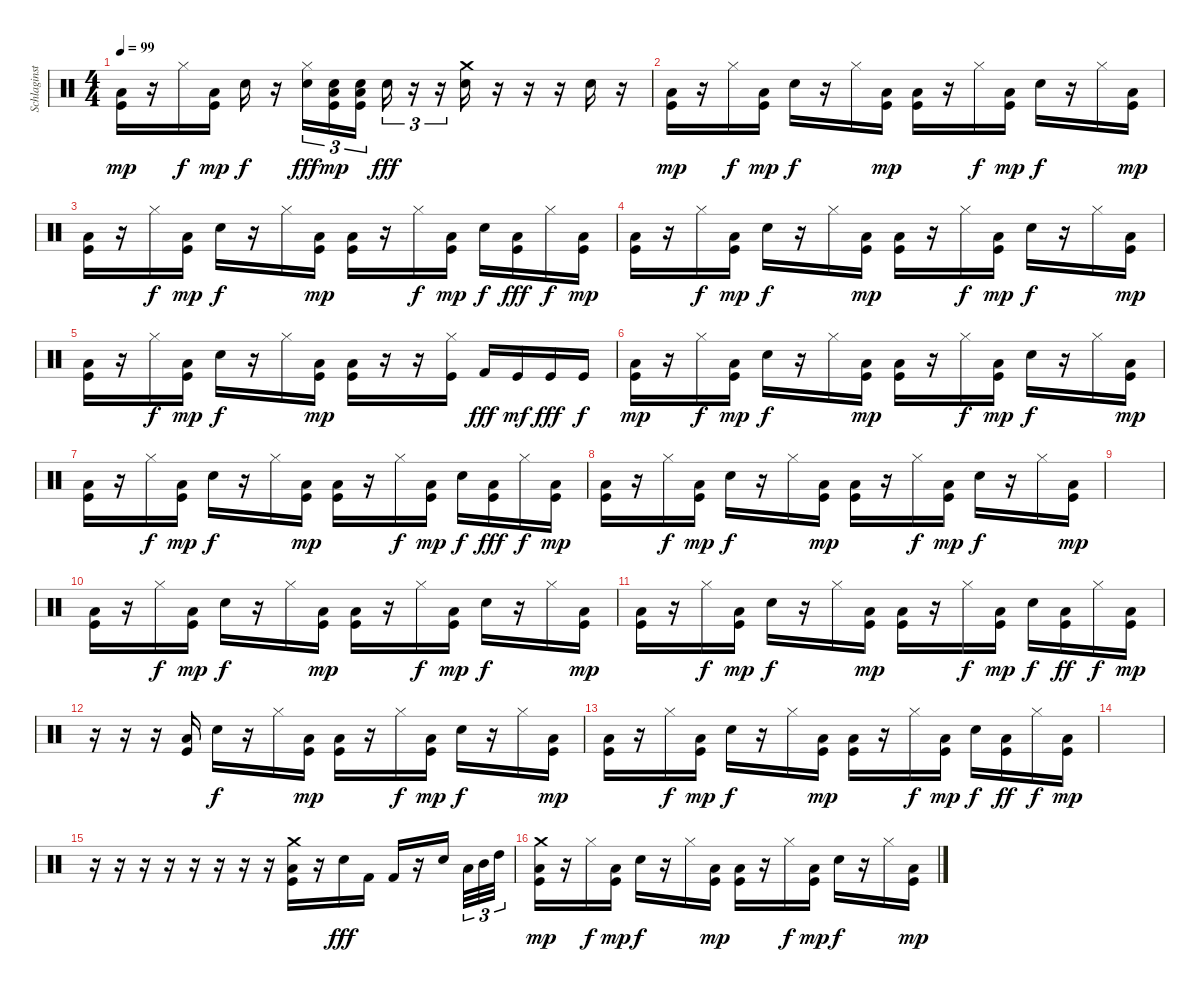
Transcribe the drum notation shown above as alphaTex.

\track ("Schlaginstrumente - Auswahl" "Schlaginst") {instrument percussion}
\staff {score}
\articulation defaults
\ts (4 4)
\tempo 99
\clef neutral
\ks c
("Low Floor Tom (hit)" "Kick (hit)").16{dy mp} r.16 "Hi-Hat (closed)".16{dy f} ("Low Floor Tom (hit)" "Kick (hit)").16{dy mp} "Snare (hit) 2".16{dy f} r.16 ("Hi-Hat (closed)" "Snare (hit) 2").16{tu (3 2) dy fff} ("Snare (hit) 2" "Low Floor Tom (hit)" "Kick (hit)").16{tu (3 2) dy mp} ("Snare (hit) 2" "Low Floor Tom (hit)" "Kick (hit)").16{tu (3 2)} "Snare (hit) 2".16{tu (3 2) dy fff} r.16{tu (3 2)} r.16{tu (3 2)} ("Crash medium (hit)" "Snare (hit) 2").16 r.16 r.16 r.16 "Snare (hit) 2".16 r.16 |
("Low Floor Tom (hit)" "Kick (hit)").16{dy mp} r.16 "Hi-Hat (closed)".16{dy f} ("Low Floor Tom (hit)" "Kick (hit)").16{dy mp} "Snare (hit) 2".16{dy f} r.16 "Hi-Hat (closed)".16 ("Low Floor Tom (hit)" "Kick (hit)").16{dy mp} ("Low Floor Tom (hit)" "Kick (hit)").16 r.16 "Hi-Hat (closed)".16{dy f} ("Low Floor Tom (hit)" "Kick (hit)").16{dy mp} "Snare (hit) 2".16{dy f} r.16 "Hi-Hat (closed)".16 ("Low Floor Tom (hit)" "Kick (hit)").16{dy mp} |
("Low Floor Tom (hit)" "Kick (hit)").16 r.16 "Hi-Hat (closed)".16{dy f} ("Low Floor Tom (hit)" "Kick (hit)").16{dy mp} "Snare (hit) 2".16{dy f} r.16 "Hi-Hat (closed)".16 ("Low Floor Tom (hit)" "Kick (hit)").16{dy mp} ("Low Floor Tom (hit)" "Kick (hit)").16 r.16 "Hi-Hat (closed)".16{dy f} ("Low Floor Tom (hit)" "Kick (hit)").16{dy mp} "Snare (hit) 2".16{dy f} ("Low Floor Tom (hit)" "Kick (hit)").16{dy fff} "Hi-Hat (closed)".16{dy f} ("Low Floor Tom (hit)" "Kick (hit)").16{dy mp} |
("Low Floor Tom (hit)" "Kick (hit)").16 r.16 "Hi-Hat (closed)".16{dy f} ("Low Floor Tom (hit)" "Kick (hit)").16{dy mp} "Snare (hit) 2".16{dy f} r.16 "Hi-Hat (closed)".16 ("Low Floor Tom (hit)" "Kick (hit)").16{dy mp} ("Low Floor Tom (hit)" "Kick (hit)").16 r.16 "Hi-Hat (closed)".16{dy f} ("Low Floor Tom (hit)" "Kick (hit)").16{dy mp} "Snare (hit) 2".16{dy f} r.16 "Hi-Hat (closed)".16 ("Low Floor Tom (hit)" "Kick (hit)").16{dy mp} |
("Low Floor Tom (hit)" "Kick (hit)").16 r.16 "Hi-Hat (closed)".16{dy f} ("Low Floor Tom (hit)" "Kick (hit)").16{dy mp} "Snare (hit) 2".16{dy f} r.16 "Hi-Hat (closed)".16 ("Low Floor Tom (hit)" "Kick (hit)").16{dy mp} ("Low Floor Tom (hit)" "Kick (hit)").16 r.16 r.16 ("Hi-Hat (closed)" "Kick (hit)").16 "Kick (hit) 2".16{dy fff} "Kick (hit)".16{dy mf} "Kick (hit)".16{dy fff} "Kick (hit)".16{dy f} |
("Low Floor Tom (hit)" "Kick (hit)").16{dy mp} r.16 "Hi-Hat (closed)".16{dy f} ("Low Floor Tom (hit)" "Kick (hit)").16{dy mp} "Snare (hit) 2".16{dy f} r.16 "Hi-Hat (closed)".16 ("Low Floor Tom (hit)" "Kick (hit)").16{dy mp} ("Low Floor Tom (hit)" "Kick (hit)").16 r.16 "Hi-Hat (closed)".16{dy f} ("Low Floor Tom (hit)" "Kick (hit)").16{dy mp} "Snare (hit) 2".16{dy f} r.16 "Hi-Hat (closed)".16 ("Low Floor Tom (hit)" "Kick (hit)").16{dy mp} |
("Low Floor Tom (hit)" "Kick (hit)").16 r.16 "Hi-Hat (closed)".16{dy f} ("Low Floor Tom (hit)" "Kick (hit)").16{dy mp} "Snare (hit) 2".16{dy f} r.16 "Hi-Hat (closed)".16 ("Low Floor Tom (hit)" "Kick (hit)").16{dy mp} ("Low Floor Tom (hit)" "Kick (hit)").16 r.16 "Hi-Hat (closed)".16{dy f} ("Low Floor Tom (hit)" "Kick (hit)").16{dy mp} "Snare (hit) 2".16{dy f} ("Low Floor Tom (hit)" "Kick (hit)").16{dy fff} "Hi-Hat (closed)".16{dy f} ("Low Floor Tom (hit)" "Kick (hit)").16{dy mp} |
("Low Floor Tom (hit)" "Kick (hit)").16 r.16 "Hi-Hat (closed)".16{dy f} ("Low Floor Tom (hit)" "Kick (hit)").16{dy mp} "Snare (hit) 2".16{dy f} r.16 "Hi-Hat (closed)".16 ("Low Floor Tom (hit)" "Kick (hit)").16{dy mp} ("Low Floor Tom (hit)" "Kick (hit)").16 r.16 "Hi-Hat (closed)".16{dy f} ("Low Floor Tom (hit)" "Kick (hit)").16{dy mp} "Snare (hit) 2".16{dy f} r.16 "Hi-Hat (closed)".16 ("Low Floor Tom (hit)" "Kick (hit)").16{dy mp} |
|
("Low Floor Tom (hit)" "Kick (hit)").16 r.16 "Hi-Hat (closed)".16{dy f} ("Low Floor Tom (hit)" "Kick (hit)").16{dy mp} "Snare (hit) 2".16{dy f} r.16 "Hi-Hat (closed)".16 ("Low Floor Tom (hit)" "Kick (hit)").16{dy mp} ("Low Floor Tom (hit)" "Kick (hit)").16 r.16 "Hi-Hat (closed)".16{dy f} ("Low Floor Tom (hit)" "Kick (hit)").16{dy mp} "Snare (hit) 2".16{dy f} r.16 "Hi-Hat (closed)".16 ("Low Floor Tom (hit)" "Kick (hit)").16{dy mp} |
("Low Floor Tom (hit)" "Kick (hit)").16 r.16 "Hi-Hat (closed)".16{dy f} ("Low Floor Tom (hit)" "Kick (hit)").16{dy mp} "Snare (hit) 2".16{dy f} r.16 "Hi-Hat (closed)".16 ("Low Floor Tom (hit)" "Kick (hit)").16{dy mp} ("Low Floor Tom (hit)" "Kick (hit)").16 r.16 "Hi-Hat (closed)".16{dy f} ("Low Floor Tom (hit)" "Kick (hit)").16{dy mp} "Snare (hit) 2".16{dy f} ("Low Floor Tom (hit)" "Kick (hit)").16{dy ff} "Hi-Hat (closed)".16{dy f} ("Low Floor Tom (hit)" "Kick (hit)").16{dy mp} |
r.16 r.16 r.16 ("Low Floor Tom (hit)" "Kick (hit)").16 "Snare (hit) 2".16{dy f} r.16 "Hi-Hat (closed)".16 ("Low Floor Tom (hit)" "Kick (hit)").16{dy mp} ("Low Floor Tom (hit)" "Kick (hit)").16 r.16 "Hi-Hat (closed)".16{dy f} ("Low Floor Tom (hit)" "Kick (hit)").16{dy mp} "Snare (hit) 2".16{dy f} r.16 "Hi-Hat (closed)".16 ("Low Floor Tom (hit)" "Kick (hit)").16{dy mp} |
("Low Floor Tom (hit)" "Kick (hit)").16 r.16 "Hi-Hat (closed)".16{dy f} ("Low Floor Tom (hit)" "Kick (hit)").16{dy mp} "Snare (hit) 2".16{dy f} r.16 "Hi-Hat (closed)".16 ("Low Floor Tom (hit)" "Kick (hit)").16{dy mp} ("Low Floor Tom (hit)" "Kick (hit)").16 r.16 "Hi-Hat (closed)".16{dy f} ("Low Floor Tom (hit)" "Kick (hit)").16{dy mp} "Snare (hit) 2".16{dy f} ("Low Floor Tom (hit)" "Kick (hit)").16{dy ff} "Hi-Hat (closed)".16{dy f} ("Low Floor Tom (hit)" "Kick (hit)").16{dy mp} |
|
r.16 r.16 r.16 r.16 r.16 r.16 r.16 r.16 ("Crash medium (hit)" "Low Floor Tom (hit)" "Kick (hit)").16 r.16 "Snare (hit) 2".16{dy fff} "Kick (hit) 2".16 "Kick (hit) 2".16 r.16 "Snare (hit) 2".16{beam splitsecondary} "Low Tom (hit)".32{tu (3 2)} "Mid Tom (hit)".32{tu (3 2)} "High Tom (hit)".32{tu (3 2)} |
("Crash medium (hit)" "Low Floor Tom (hit)" "Kick (hit)").16{dy mp} r.16 "Hi-Hat (closed)".16{dy f} ("Low Floor Tom (hit)" "Kick (hit)").16{dy mp} "Snare (hit) 2".16{dy f} r.16 "Hi-Hat (closed)".16 ("Low Floor Tom (hit)" "Kick (hit)").16{dy mp} ("Low Floor Tom (hit)" "Kick (hit)").16 r.16 "Hi-Hat (closed)".16{dy f} ("Low Floor Tom (hit)" "Kick (hit)").16{dy mp} "Snare (hit) 2".16{dy f} r.16 "Hi-Hat (closed)".16 ("Low Floor Tom (hit)" "Kick (hit)").16{dy mp}
